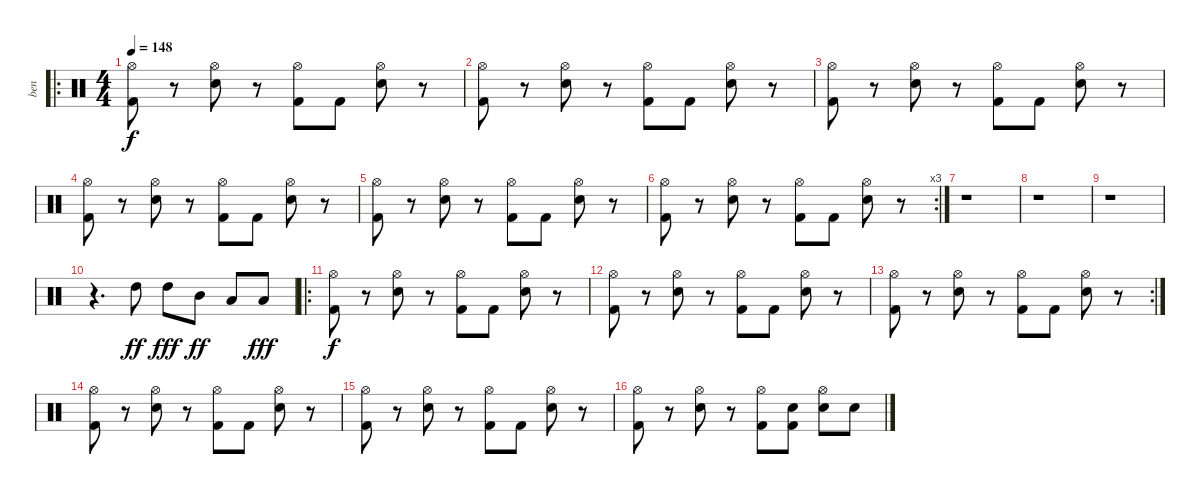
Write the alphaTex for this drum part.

\track ("ben" "ben") {instrument percussion}
\staff {score}
\articulation defaults
\ro
\ts (4 4)
\tempo 148
\clef neutral
\ks c
("Hi-Hat (open)" "Kick (hit) 2").8{dy f} r.8 ("Hi-Hat (open)" "Snare (hit) 2").8 r.8 ("Hi-Hat (open)" "Kick (hit) 2").8 "Kick (hit) 2".8 ("Hi-Hat (open)" "Snare (hit) 2").8 r.8 |
("Hi-Hat (open)" "Kick (hit) 2").8 r.8 ("Hi-Hat (open)" "Snare (hit) 2").8 r.8 ("Hi-Hat (open)" "Kick (hit) 2").8 "Kick (hit) 2".8 ("Hi-Hat (open)" "Snare (hit) 2").8 r.8 |
("Hi-Hat (open)" "Kick (hit) 2").8 r.8 ("Hi-Hat (open)" "Snare (hit) 2").8 r.8 ("Hi-Hat (open)" "Kick (hit) 2").8 "Kick (hit) 2".8 ("Hi-Hat (open)" "Snare (hit) 2").8 r.8 |
("Hi-Hat (open)" "Kick (hit) 2").8 r.8 ("Hi-Hat (open)" "Snare (hit) 2").8 r.8 ("Hi-Hat (open)" "Kick (hit) 2").8 "Kick (hit) 2".8 ("Hi-Hat (open)" "Snare (hit) 2").8 r.8 |
("Hi-Hat (open)" "Kick (hit) 2").8 r.8 ("Hi-Hat (open)" "Snare (hit) 2").8 r.8 ("Hi-Hat (open)" "Kick (hit) 2").8 "Kick (hit) 2".8 ("Hi-Hat (open)" "Snare (hit) 2").8 r.8 |
\rc 3
("Hi-Hat (open)" "Kick (hit) 2").8 r.8 ("Hi-Hat (open)" "Snare (hit) 2").8 r.8 ("Hi-Hat (open)" "Kick (hit) 2").8 "Kick (hit) 2".8 ("Hi-Hat (open)" "Snare (hit) 2").8 r.8 |
r.1 |
r.1 |
r.1 |
r.4{d} "High Tom (hit)".8{dy ff} "High Tom (hit)".8{dy fff} "Mid Tom (hit)".8{dy ff} "Low Tom (hit)".8 "Low Tom (hit)".8{dy fff} |
\ro
("Hi-Hat (open)" "Kick (hit) 2").8{dy f} r.8 ("Hi-Hat (open)" "Snare (hit) 2").8 r.8 ("Hi-Hat (open)" "Kick (hit) 2").8 "Kick (hit) 2".8 ("Hi-Hat (open)" "Snare (hit) 2").8 r.8 |
("Hi-Hat (open)" "Kick (hit) 2").8 r.8 ("Hi-Hat (open)" "Snare (hit) 2").8 r.8 ("Hi-Hat (open)" "Kick (hit) 2").8 "Kick (hit) 2".8 ("Hi-Hat (open)" "Snare (hit) 2").8 r.8 |
\rc 2
("Hi-Hat (open)" "Kick (hit) 2").8 r.8 ("Hi-Hat (open)" "Snare (hit) 2").8 r.8 ("Hi-Hat (open)" "Kick (hit) 2").8 "Kick (hit) 2".8 ("Hi-Hat (open)" "Snare (hit) 2").8 r.8 |
("Hi-Hat (open)" "Kick (hit) 2").8 r.8 ("Hi-Hat (open)" "Snare (hit) 2").8 r.8 ("Hi-Hat (open)" "Kick (hit) 2").8 "Kick (hit) 2".8 ("Hi-Hat (open)" "Snare (hit) 2").8 r.8 |
("Hi-Hat (open)" "Kick (hit) 2").8 r.8 ("Hi-Hat (open)" "Snare (hit) 2").8 r.8 ("Hi-Hat (open)" "Kick (hit) 2").8 "Kick (hit) 2".8 ("Hi-Hat (open)" "Snare (hit) 2").8 r.8 |
("Hi-Hat (open)" "Kick (hit) 2").8 r.8 ("Hi-Hat (open)" "Snare (hit) 2").8 r.8 ("Hi-Hat (open)" "Kick (hit) 2").8 ("Electric Snare (hit)" "Kick (hit) 2").8 ("Hi-Hat (open)" "Snare (hit) 2").8 "Snare (hit) 2".8
